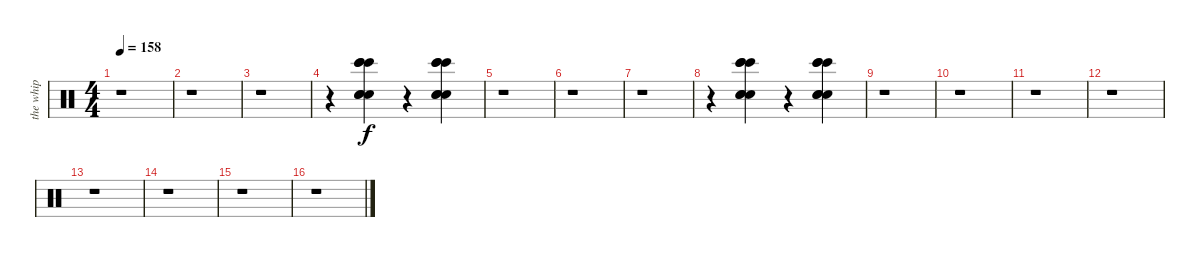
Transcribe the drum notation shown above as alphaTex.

\track ("the whip " "the whip ") {instrument percussion}
\staff {score}
\articulation defaults
\ts (4 4)
\tempo 158
\clef neutral
\ks c
r.1{dy f} |
r.1 |
r.1 |
r.4 ("Hand Clap (hit)" "Hand Clap (hit)" "Hand Clap (hit)" "Bongo High (hit)" "Bongo High (hit)" "Bongo High (hit)").4 r.4 ("Hand Clap (hit)" "Hand Clap (hit)" "Hand Clap (hit)" "Bongo High (hit)" "Bongo High (hit)" "Bongo High (hit)").4 |
r.1 |
r.1 |
r.1 |
r.4 ("Hand Clap (hit)" "Hand Clap (hit)" "Hand Clap (hit)" "Bongo High (hit)" "Bongo High (hit)" "Bongo High (hit)").4 r.4 ("Hand Clap (hit)" "Hand Clap (hit)" "Hand Clap (hit)" "Bongo High (hit)" "Bongo High (hit)" "Bongo High (hit)").4 |
r.1 |
r.1 |
r.1 |
r.1 |
r.1 |
r.1 |
r.1 |
r.1
